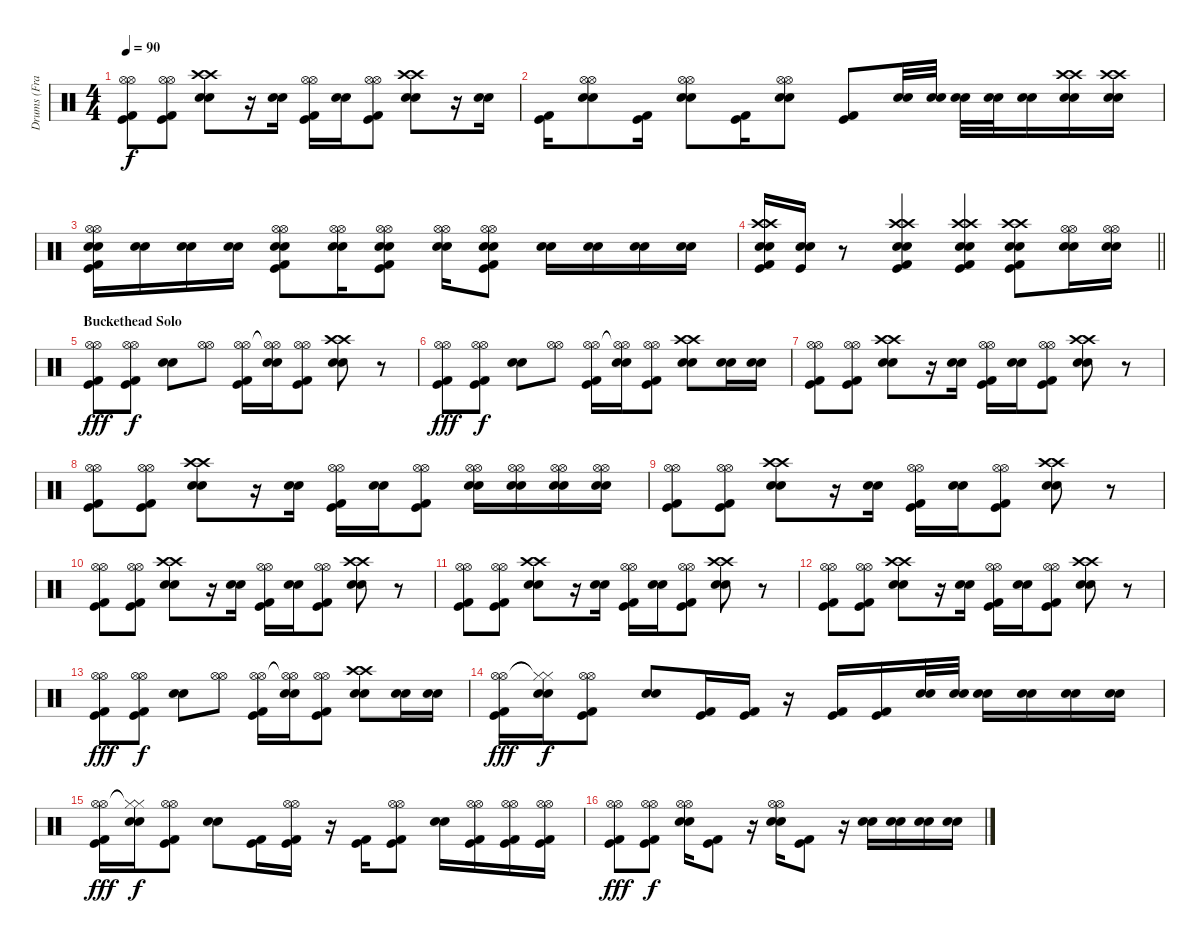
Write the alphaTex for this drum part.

\track ("Drums (Frank Ferrer)" "Drums (Fra") {instrument percussion}
\staff {score}
\articulation defaults
\ts (4 4)
\tempo 90
\clef neutral
\ks c
("Hi-Hat (open)" "Hi-Hat (open)" "Kick (hit)" "Kick (hit) 2").8{dy f} ("Hi-Hat (open)" "Hi-Hat (open)" "Kick (hit)" "Kick (hit) 2").8 ("Crash high (hit)" "Crash high (hit)" "Snare (hit) 2" "Snare (hit) 2").8 r.16 ("Snare (hit) 2" "Snare (hit) 2").16 ("Hi-Hat (open)" "Hi-Hat (open)" "Kick (hit)" "Kick (hit) 2").16 ("Snare (hit) 2" "Snare (hit) 2").16 ("Hi-Hat (open)" "Hi-Hat (open)" "Kick (hit)" "Kick (hit) 2").8 ("Crash high (hit)" "Crash high (hit)" "Snare (hit) 2" "Snare (hit) 2").8 r.16 ("Snare (hit) 2" "Snare (hit) 2").16 |
("Kick (hit)" "Kick (hit) 2").16 ("Hi-Hat (open)" "Hi-Hat (open)" "Snare (hit) 2" "Snare (hit) 2").8 ("Kick (hit)" "Kick (hit) 2").16 ("Hi-Hat (open)" "Hi-Hat (open)" "Snare (hit) 2" "Snare (hit) 2").8 ("Kick (hit)" "Kick (hit) 2").16 ("Hi-Hat (open)" "Hi-Hat (open)" "Snare (hit) 2" "Snare (hit) 2").8 ("Kick (hit)" "Kick (hit) 2").8 ("Snare (hit) 2" "Snare (hit) 2").32 ("Snare (hit) 2" "Snare (hit) 2").32 ("Snare (hit) 2" "Snare (hit) 2").32 ("Snare (hit) 2" "Snare (hit) 2").32 ("Snare (hit) 2" "Snare (hit) 2").16 ("Crash high (hit)" "Crash high (hit)" "Snare (hit) 2" "Snare (hit) 2").16 ("Crash high (hit)" "Crash high (hit)" "Snare (hit) 2" "Snare (hit) 2").16 |
("Hi-Hat (open)" "Hi-Hat (open)" "Snare (hit) 2" "Snare (hit) 2" "Kick (hit)" "Kick (hit) 2").16 ("Snare (hit) 2" "Snare (hit) 2").16 ("Snare (hit) 2" "Snare (hit) 2").16 ("Snare (hit) 2" "Snare (hit) 2").16 ("Hi-Hat (open)" "Hi-Hat (open)" "Snare (hit) 2" "Snare (hit) 2" "Kick (hit)" "Kick (hit) 2").8 ("Hi-Hat (open)" "Hi-Hat (open)" "Snare (hit) 2" "Snare (hit) 2").16 ("Hi-Hat (open)" "Hi-Hat (open)" "Snare (hit) 2" "Snare (hit) 2" "Kick (hit)" "Kick (hit) 2").8 ("Hi-Hat (open)" "Hi-Hat (open)" "Snare (hit) 2" "Snare (hit) 2").16 ("Hi-Hat (open)" "Hi-Hat (open)" "Snare (hit) 2" "Snare (hit) 2" "Kick (hit)" "Kick (hit) 2").8 ("Snare (hit) 2" "Snare (hit) 2").16 ("Snare (hit) 2" "Snare (hit) 2").16 ("Snare (hit) 2" "Snare (hit) 2").16 ("Snare (hit) 2" "Snare (hit) 2").16 |
\barLineRight lightlight
("Crash high (hit)" "Crash high (hit)" "Snare (hit) 2" "Snare (hit) 2" "Kick (hit)" "Kick (hit) 2").16 ("Snare (hit) 2" "Snare (hit) 2" "Kick (hit)").16 r.8 ("Crash high (hit)" "Crash high (hit)" "Snare (hit) 2" "Snare (hit) 2" "Kick (hit)" "Kick (hit) 2").4 ("Crash high (hit)" "Crash high (hit)" "Snare (hit) 2" "Snare (hit) 2" "Kick (hit)" "Kick (hit) 2").4 ("Crash high (hit)" "Crash high (hit)" "Snare (hit) 2" "Snare (hit) 2" "Kick (hit)" "Kick (hit) 2").8 ("Hi-Hat (open)" "Hi-Hat (open)" "Snare (hit) 2" "Snare (hit) 2").16 ("Hi-Hat (open)" "Hi-Hat (open)" "Snare (hit) 2" "Snare (hit) 2").16 |
\section ("" "Buckethead Solo")
("Hi-Hat (open)" "Hi-Hat (open)" "Kick (hit)" "Kick (hit) 2").8{dy fff volume 13} ("Hi-Hat (open)" "Hi-Hat (open)" "Kick (hit)" "Kick (hit) 2").8{dy f} ("Snare (hit) 2" "Snare (hit) 2").8 ("Hi-Hat (open)" "Hi-Hat (open)").8 ("Hi-Hat (open)" "Hi-Hat (open)" "Kick (hit)" "Kick (hit) 2").16 ("Hi-Hat (open)"{t} "Hi-Hat (open)"{t} "Snare (hit) 2" "Snare (hit) 2").16 ("Hi-Hat (open)" "Hi-Hat (open)" "Kick (hit)" "Kick (hit) 2").8 ("Crash high (hit)" "Crash high (hit)" "Snare (hit) 2" "Snare (hit) 2").8 r.8 |
("Hi-Hat (open)" "Hi-Hat (open)" "Kick (hit)" "Kick (hit) 2").8{dy fff} ("Hi-Hat (open)" "Hi-Hat (open)" "Kick (hit)" "Kick (hit) 2").8{dy f} ("Snare (hit) 2" "Snare (hit) 2").8 ("Hi-Hat (open)" "Hi-Hat (open)").8 ("Hi-Hat (open)" "Hi-Hat (open)" "Kick (hit)" "Kick (hit) 2").16 ("Hi-Hat (open)"{t} "Hi-Hat (open)"{t} "Snare (hit) 2" "Snare (hit) 2").16 ("Hi-Hat (open)" "Hi-Hat (open)" "Kick (hit)" "Kick (hit) 2").8 ("Crash high (hit)" "Crash high (hit)" "Snare (hit) 2" "Snare (hit) 2").8 ("Snare (hit) 2" "Snare (hit) 2").16 ("Snare (hit) 2" "Snare (hit) 2").16 |
("Hi-Hat (open)" "Hi-Hat (open)" "Kick (hit)" "Kick (hit) 2").8 ("Hi-Hat (open)" "Hi-Hat (open)" "Kick (hit)" "Kick (hit) 2").8 ("Crash high (hit)" "Crash high (hit)" "Snare (hit) 2" "Snare (hit) 2").8 r.16 ("Snare (hit) 2" "Snare (hit) 2").16 ("Hi-Hat (open)" "Hi-Hat (open)" "Kick (hit)" "Kick (hit) 2").16 ("Snare (hit) 2" "Snare (hit) 2").16 ("Hi-Hat (open)" "Hi-Hat (open)" "Kick (hit)" "Kick (hit) 2").8 ("Crash high (hit)" "Crash high (hit)" "Snare (hit) 2" "Snare (hit) 2").8 r.8 |
("Hi-Hat (open)" "Hi-Hat (open)" "Kick (hit)" "Kick (hit) 2").8 ("Hi-Hat (open)" "Hi-Hat (open)" "Kick (hit)" "Kick (hit) 2").8 ("Crash high (hit)" "Crash high (hit)" "Snare (hit) 2" "Snare (hit) 2").8 r.16 ("Snare (hit) 2" "Snare (hit) 2").16 ("Hi-Hat (open)" "Hi-Hat (open)" "Kick (hit)" "Kick (hit) 2").16 ("Snare (hit) 2" "Snare (hit) 2").16 ("Hi-Hat (open)" "Hi-Hat (open)" "Kick (hit)" "Kick (hit) 2").8 ("Hi-Hat (open)" "Hi-Hat (open)" "Snare (hit) 2" "Snare (hit) 2").16 ("Hi-Hat (open)" "Hi-Hat (open)" "Snare (hit) 2" "Snare (hit) 2").16 ("Hi-Hat (open)" "Hi-Hat (open)" "Snare (hit) 2" "Snare (hit) 2").16 ("Hi-Hat (open)" "Hi-Hat (open)" "Snare (hit) 2" "Snare (hit) 2").16 |
("Hi-Hat (open)" "Hi-Hat (open)" "Kick (hit)" "Kick (hit) 2").8 ("Hi-Hat (open)" "Hi-Hat (open)" "Kick (hit)" "Kick (hit) 2").8 ("Crash high (hit)" "Crash high (hit)" "Snare (hit) 2" "Snare (hit) 2").8 r.16 ("Snare (hit) 2" "Snare (hit) 2").16 ("Hi-Hat (open)" "Hi-Hat (open)" "Kick (hit)" "Kick (hit) 2").16 ("Snare (hit) 2" "Snare (hit) 2").16 ("Hi-Hat (open)" "Hi-Hat (open)" "Kick (hit)" "Kick (hit) 2").8 ("Crash high (hit)" "Crash high (hit)" "Snare (hit) 2" "Snare (hit) 2").8 r.8 |
("Hi-Hat (open)" "Hi-Hat (open)" "Kick (hit)" "Kick (hit) 2").8 ("Hi-Hat (open)" "Hi-Hat (open)" "Kick (hit)" "Kick (hit) 2").8 ("Crash high (hit)" "Crash high (hit)" "Snare (hit) 2" "Snare (hit) 2").8 r.16 ("Snare (hit) 2" "Snare (hit) 2").16 ("Hi-Hat (open)" "Hi-Hat (open)" "Kick (hit)" "Kick (hit) 2").16 ("Snare (hit) 2" "Snare (hit) 2").16 ("Hi-Hat (open)" "Hi-Hat (open)" "Kick (hit)" "Kick (hit) 2").8 ("Crash high (hit)" "Crash high (hit)" "Snare (hit) 2" "Snare (hit) 2").8 r.8 |
("Hi-Hat (open)" "Hi-Hat (open)" "Kick (hit)" "Kick (hit) 2").8 ("Hi-Hat (open)" "Hi-Hat (open)" "Kick (hit)" "Kick (hit) 2").8 ("Crash high (hit)" "Crash high (hit)" "Snare (hit) 2" "Snare (hit) 2").8 r.16 ("Snare (hit) 2" "Snare (hit) 2").16 ("Hi-Hat (open)" "Hi-Hat (open)" "Kick (hit)" "Kick (hit) 2").16 ("Snare (hit) 2" "Snare (hit) 2").16 ("Hi-Hat (open)" "Hi-Hat (open)" "Kick (hit)" "Kick (hit) 2").8 ("Crash high (hit)" "Crash high (hit)" "Snare (hit) 2" "Snare (hit) 2").8 r.8 |
("Hi-Hat (open)" "Hi-Hat (open)" "Kick (hit)" "Kick (hit) 2").8 ("Hi-Hat (open)" "Hi-Hat (open)" "Kick (hit)" "Kick (hit) 2").8 ("Crash high (hit)" "Crash high (hit)" "Snare (hit) 2" "Snare (hit) 2").8 r.16 ("Snare (hit) 2" "Snare (hit) 2").16 ("Hi-Hat (open)" "Hi-Hat (open)" "Kick (hit)" "Kick (hit) 2").16 ("Snare (hit) 2" "Snare (hit) 2").16 ("Hi-Hat (open)" "Hi-Hat (open)" "Kick (hit)" "Kick (hit) 2").8 ("Crash high (hit)" "Crash high (hit)" "Snare (hit) 2" "Snare (hit) 2").8 r.8 |
("Hi-Hat (open)" "Hi-Hat (open)" "Kick (hit)" "Kick (hit) 2").8{dy fff} ("Hi-Hat (open)" "Hi-Hat (open)" "Kick (hit)" "Kick (hit) 2").8{dy f} ("Snare (hit) 2" "Snare (hit) 2").8 ("Hi-Hat (open)" "Hi-Hat (open)").8 ("Hi-Hat (open)" "Hi-Hat (open)" "Kick (hit)" "Kick (hit) 2").16 ("Hi-Hat (open)"{t} "Hi-Hat (open)"{t} "Snare (hit) 2" "Snare (hit) 2").16 ("Hi-Hat (open)" "Hi-Hat (open)" "Kick (hit)" "Kick (hit) 2").8 ("Crash high (hit)" "Crash high (hit)" "Snare (hit) 2" "Snare (hit) 2").8 ("Snare (hit) 2" "Snare (hit) 2").16 ("Snare (hit) 2" "Snare (hit) 2").16 |
("Hi-Hat (open)" "Hi-Hat (open)" "Kick (hit)" "Kick (hit) 2").16{dy fff} ("Hi-Hat (closed)"{t} "Hi-Hat (closed)"{t} "Snare (hit) 2" "Snare (hit) 2").16{dy f} ("Hi-Hat (open)" "Hi-Hat (open)" "Kick (hit)" "Kick (hit) 2").8 ("Snare (hit) 2" "Snare (hit) 2").8 ("Kick (hit)" "Kick (hit) 2").16 ("Kick (hit)" "Kick (hit) 2").16 r.16 ("Kick (hit)" "Kick (hit) 2").16 ("Kick (hit)" "Kick (hit) 2").16 ("Snare (hit) 2" "Snare (hit) 2").32 ("Snare (hit) 2" "Snare (hit) 2").32 ("Snare (hit) 2" "Snare (hit) 2").16 ("Snare (hit) 2" "Snare (hit) 2").16 ("Snare (hit) 2" "Snare (hit) 2").16 ("Snare (hit) 2" "Snare (hit) 2").16 |
("Hi-Hat (open)" "Hi-Hat (open)" "Kick (hit)" "Kick (hit) 2").16{dy fff} ("Hi-Hat (closed)"{t} "Hi-Hat (closed)"{t} "Snare (hit) 2" "Snare (hit) 2").16{dy f} ("Hi-Hat (open)" "Hi-Hat (open)" "Kick (hit)" "Kick (hit) 2").8 ("Snare (hit) 2" "Snare (hit) 2").8 ("Kick (hit)" "Kick (hit) 2").16 ("Hi-Hat (open)" "Hi-Hat (open)" "Kick (hit)" "Kick (hit) 2").16 r.16 ("Kick (hit)" "Kick (hit) 2").16 ("Hi-Hat (open)" "Hi-Hat (open)" "Kick (hit)" "Kick (hit) 2").8 ("Snare (hit) 2" "Snare (hit) 2").16 ("Hi-Hat (open)" "Hi-Hat (open)" "Kick (hit)" "Kick (hit) 2").16 ("Hi-Hat (open)" "Hi-Hat (open)" "Kick (hit)" "Kick (hit) 2").16 ("Hi-Hat (open)" "Hi-Hat (open)" "Kick (hit)" "Kick (hit) 2").16 |
("Hi-Hat (open)" "Hi-Hat (open)" "Kick (hit)" "Kick (hit) 2").8{dy fff} ("Hi-Hat (open)" "Hi-Hat (open)" "Kick (hit)" "Kick (hit) 2").8{dy f} ("Hi-Hat (open)" "Hi-Hat (open)" "Snare (hit) 2" "Snare (hit) 2").16 ("Kick (hit)" "Kick (hit) 2").8 r.16 ("Hi-Hat (open)" "Hi-Hat (open)" "Snare (hit) 2" "Snare (hit) 2").16 ("Kick (hit)" "Kick (hit) 2").8 r.16 ("Snare (hit) 2" "Snare (hit) 2").16 ("Snare (hit) 2" "Snare (hit) 2").16 ("Snare (hit) 2" "Snare (hit) 2").16 ("Snare (hit) 2" "Snare (hit) 2").16
